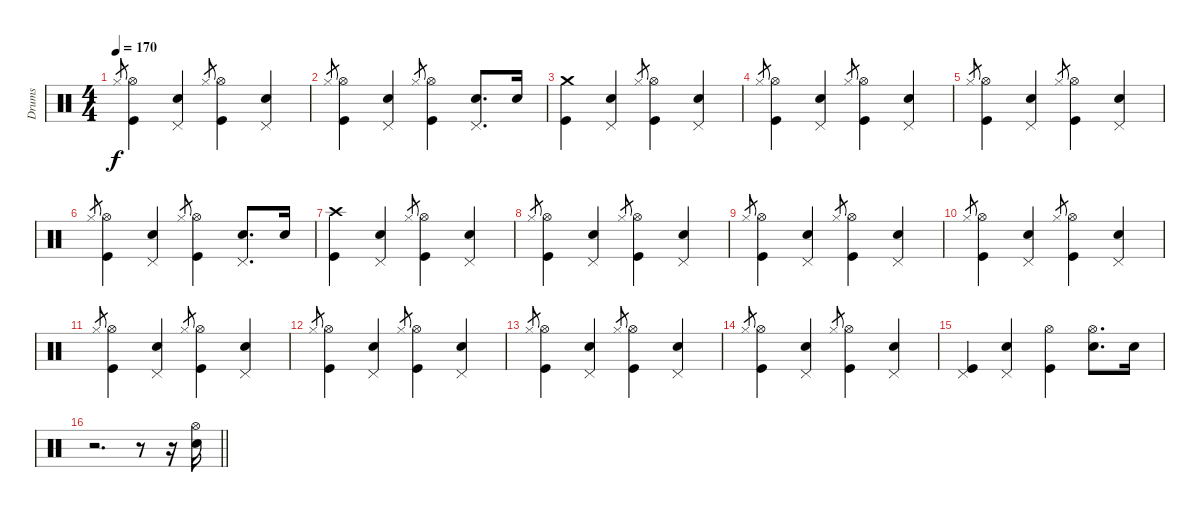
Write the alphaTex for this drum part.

\track ("Drums" "Drums") {instrument percussion}
\staff {score}
\articulation defaults
\ts (4 4)
\tempo 170
\clef neutral
\ks aminor "Hi-Hat (closed)".8{gr dy f}
("Kick (hit)" "Hi-Hat (open)").4 ("Electric Snare (hit)" "Pedal Hi-Hat (hit)").4 "Hi-Hat (closed)".8{gr} ("Kick (hit)" "Hi-Hat (open)").4 ("Electric Snare (hit)" "Pedal Hi-Hat (hit)").4 |
"Hi-Hat (closed)".8{gr} ("Kick (hit)" "Hi-Hat (open)").4 ("Electric Snare (hit)" "Pedal Hi-Hat (hit)").4 "Hi-Hat (closed)".8{gr} ("Kick (hit)" "Hi-Hat (open)").4 ("Electric Snare (hit)" "Pedal Hi-Hat (hit)").8{d} "Electric Snare (hit)".16 |
("Kick (hit)" "Crash medium (hit)").4 ("Electric Snare (hit)" "Pedal Hi-Hat (hit)").4 "Hi-Hat (closed)".8{gr} ("Kick (hit)" "Hi-Hat (open)").4 ("Electric Snare (hit)" "Pedal Hi-Hat (hit)").4 |
"Hi-Hat (closed)".8{gr} ("Kick (hit)" "Hi-Hat (open)").4 ("Electric Snare (hit)" "Pedal Hi-Hat (hit)").4 "Hi-Hat (closed)".8{gr} ("Kick (hit)" "Hi-Hat (open)").4 ("Electric Snare (hit)" "Pedal Hi-Hat (hit)").4 |
"Hi-Hat (closed)".8{gr} ("Kick (hit)" "Hi-Hat (open)").4 ("Electric Snare (hit)" "Pedal Hi-Hat (hit)").4 "Hi-Hat (closed)".8{gr} ("Kick (hit)" "Hi-Hat (open)").4 ("Electric Snare (hit)" "Pedal Hi-Hat (hit)").4 |
"Hi-Hat (closed)".8{gr} ("Kick (hit)" "Hi-Hat (open)").4 ("Electric Snare (hit)" "Pedal Hi-Hat (hit)").4 "Hi-Hat (closed)".8{gr} ("Kick (hit)" "Hi-Hat (open)").4 ("Electric Snare (hit)" "Pedal Hi-Hat (hit)").8{d} "Electric Snare (hit)".16 |
("Kick (hit)" "Crash high (hit)").4 ("Electric Snare (hit)" "Pedal Hi-Hat (hit)").4 "Hi-Hat (closed)".8{gr} ("Kick (hit)" "Hi-Hat (open)").4 ("Electric Snare (hit)" "Pedal Hi-Hat (hit)").4 |
"Hi-Hat (closed)".8{gr} ("Kick (hit)" "Hi-Hat (open)").4 ("Electric Snare (hit)" "Pedal Hi-Hat (hit)").4 "Hi-Hat (closed)".8{gr} ("Kick (hit)" "Hi-Hat (open)").4 ("Electric Snare (hit)" "Pedal Hi-Hat (hit)").4 |
"Hi-Hat (closed)".8{gr} ("Kick (hit)" "Hi-Hat (open)").4 ("Electric Snare (hit)" "Pedal Hi-Hat (hit)").4 "Hi-Hat (closed)".8{gr} ("Kick (hit)" "Hi-Hat (open)").4 ("Electric Snare (hit)" "Pedal Hi-Hat (hit)").4 |
"Hi-Hat (closed)".8{gr} ("Kick (hit)" "Hi-Hat (open)").4 ("Electric Snare (hit)" "Pedal Hi-Hat (hit)").4 "Hi-Hat (closed)".8{gr} ("Kick (hit)" "Hi-Hat (open)").4 ("Electric Snare (hit)" "Pedal Hi-Hat (hit)").4 |
"Hi-Hat (closed)".8{gr} ("Kick (hit)" "Hi-Hat (open)").4 ("Electric Snare (hit)" "Pedal Hi-Hat (hit)").4 "Hi-Hat (closed)".8{gr} ("Kick (hit)" "Hi-Hat (open)").4 ("Electric Snare (hit)" "Pedal Hi-Hat (hit)").4 |
"Hi-Hat (closed)".8{gr} ("Kick (hit)" "Hi-Hat (open)").4 ("Electric Snare (hit)" "Pedal Hi-Hat (hit)").4 "Hi-Hat (closed)".8{gr} ("Kick (hit)" "Hi-Hat (open)").4 ("Electric Snare (hit)" "Pedal Hi-Hat (hit)").4 |
"Hi-Hat (closed)".8{gr} ("Kick (hit)" "Hi-Hat (open)").4 ("Electric Snare (hit)" "Pedal Hi-Hat (hit)").4 "Hi-Hat (closed)".8{gr} ("Kick (hit)" "Hi-Hat (open)").4 ("Electric Snare (hit)" "Pedal Hi-Hat (hit)").4 |
"Hi-Hat (closed)".8{gr} ("Kick (hit)" "Hi-Hat (open)").4 ("Electric Snare (hit)" "Pedal Hi-Hat (hit)").4 "Hi-Hat (closed)".8{gr} ("Kick (hit)" "Hi-Hat (open)").4 ("Electric Snare (hit)" "Pedal Hi-Hat (hit)").4 |
("Kick (hit)" "Pedal Hi-Hat (hit)").4 ("Electric Snare (hit)" "Pedal Hi-Hat (hit)").4 ("Kick (hit)" "Hi-Hat (open)").4 ("Hi-Hat (open)" "Electric Snare (hit)").8{d} "Electric Snare (hit)".16 |
\barLineRight lightlight
r.2{d} r.8 r.16 ("Hi-Hat (open)" "Electric Snare (hit)").16
